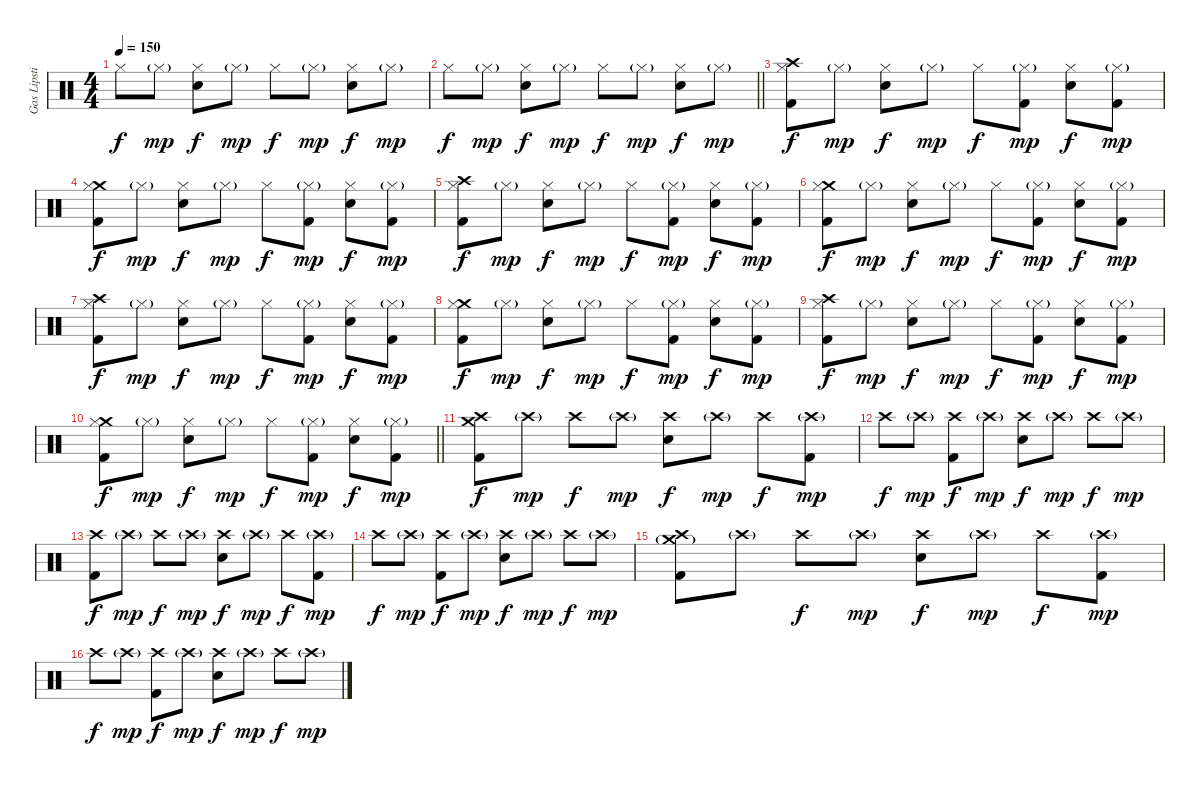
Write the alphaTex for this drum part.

\track ("Gas Lipstick" "Gas Lipsti") {instrument percussion}
\staff {score}
\articulation defaults
\ts (4 4)
\tempo 150
\clef neutral
\ks c "Hi-Hat (closed)".8{dy f} "Hi-Hat (closed)"{g}.8{dy mp}
("Hi-Hat (closed)" "Snare (hit) 2").8{dy f} "Hi-Hat (closed)"{g}.8{dy mp} "Hi-Hat (closed)".8{dy f} "Hi-Hat (closed)"{g}.8{dy mp} ("Hi-Hat (closed)" "Snare (hit) 2").8{dy f} "Hi-Hat (closed)"{g}.8{dy mp} |
\barLineRight lightlight "Hi-Hat (closed)".8{dy f} "Hi-Hat (closed)"{g}.8{dy mp}
("Hi-Hat (closed)" "Snare (hit) 2").8{dy f} "Hi-Hat (closed)"{g}.8{dy mp} "Hi-Hat (closed)".8{dy f} "Hi-Hat (closed)"{g}.8{dy mp} ("Hi-Hat (closed)" "Snare (hit) 2").8{dy f} "Hi-Hat (closed)"{g}.8{dy mp} |
("Crash high (hit)" "Hi-Hat (closed)" "Kick (hit) 2").8{dy f} "Hi-Hat (closed)"{g}.8{dy mp} ("Hi-Hat (closed)" "Snare (hit) 2").8{dy f} "Hi-Hat (closed)"{g}.8{dy mp} "Hi-Hat (closed)".8{dy f} ("Hi-Hat (closed)"{g} "Kick (hit) 2").8{dy mp} ("Hi-Hat (closed)" "Snare (hit) 2").8{dy f} ("Hi-Hat (closed)"{g} "Kick (hit) 2").8{dy mp} |
("Crash medium (hit)" "Hi-Hat (closed)" "Kick (hit) 2").8{dy f} "Hi-Hat (closed)"{g}.8{dy mp} ("Hi-Hat (closed)" "Snare (hit) 2").8{dy f} "Hi-Hat (closed)"{g}.8{dy mp} "Hi-Hat (closed)".8{dy f} ("Hi-Hat (closed)"{g} "Kick (hit) 2").8{dy mp} ("Hi-Hat (closed)" "Snare (hit) 2").8{dy f} ("Hi-Hat (closed)"{g} "Kick (hit) 2").8{dy mp} |
("Crash high (hit)" "Hi-Hat (closed)" "Kick (hit) 2").8{dy f} "Hi-Hat (closed)"{g}.8{dy mp} ("Hi-Hat (closed)" "Snare (hit) 2").8{dy f} "Hi-Hat (closed)"{g}.8{dy mp} "Hi-Hat (closed)".8{dy f} ("Hi-Hat (closed)"{g} "Kick (hit) 2").8{dy mp} ("Hi-Hat (closed)" "Snare (hit) 2").8{dy f} ("Hi-Hat (closed)"{g} "Kick (hit) 2").8{dy mp} |
("Crash medium (hit)" "Hi-Hat (closed)" "Kick (hit) 2").8{dy f} "Hi-Hat (closed)"{g}.8{dy mp} ("Hi-Hat (closed)" "Snare (hit) 2").8{dy f} "Hi-Hat (closed)"{g}.8{dy mp} "Hi-Hat (closed)".8{dy f} ("Hi-Hat (closed)"{g} "Kick (hit) 2").8{dy mp} ("Hi-Hat (closed)" "Snare (hit) 2").8{dy f} ("Hi-Hat (closed)"{g} "Kick (hit) 2").8{dy mp} |
("Crash high (hit)" "Hi-Hat (closed)" "Kick (hit) 2").8{dy f} "Hi-Hat (closed)"{g}.8{dy mp} ("Hi-Hat (closed)" "Snare (hit) 2").8{dy f} "Hi-Hat (closed)"{g}.8{dy mp} "Hi-Hat (closed)".8{dy f} ("Hi-Hat (closed)"{g} "Kick (hit) 2").8{dy mp} ("Hi-Hat (closed)" "Snare (hit) 2").8{dy f} ("Hi-Hat (closed)"{g} "Kick (hit) 2").8{dy mp} |
("Crash medium (hit)" "Hi-Hat (closed)" "Kick (hit) 2").8{dy f} "Hi-Hat (closed)"{g}.8{dy mp} ("Hi-Hat (closed)" "Snare (hit) 2").8{dy f} "Hi-Hat (closed)"{g}.8{dy mp} "Hi-Hat (closed)".8{dy f} ("Hi-Hat (closed)"{g} "Kick (hit) 2").8{dy mp} ("Hi-Hat (closed)" "Snare (hit) 2").8{dy f} ("Hi-Hat (closed)"{g} "Kick (hit) 2").8{dy mp} |
("Crash high (hit)" "Hi-Hat (closed)" "Kick (hit) 2").8{dy f} "Hi-Hat (closed)"{g}.8{dy mp} ("Hi-Hat (closed)" "Snare (hit) 2").8{dy f} "Hi-Hat (closed)"{g}.8{dy mp} "Hi-Hat (closed)".8{dy f} ("Hi-Hat (closed)"{g} "Kick (hit) 2").8{dy mp} ("Hi-Hat (closed)" "Snare (hit) 2").8{dy f} ("Hi-Hat (closed)"{g} "Kick (hit) 2").8{dy mp} |
\barLineRight lightlight
("Crash medium (hit)" "Hi-Hat (closed)" "Kick (hit) 2").8{dy f} "Hi-Hat (closed)"{g}.8{dy mp} ("Hi-Hat (closed)" "Snare (hit) 2").8{dy f} "Hi-Hat (closed)"{g}.8{dy mp} "Hi-Hat (closed)".8{dy f} ("Hi-Hat (closed)"{g} "Kick (hit) 2").8{dy mp} ("Hi-Hat (closed)" "Snare (hit) 2").8{dy f} ("Hi-Hat (closed)"{g} "Kick (hit) 2").8{dy mp} |
("Crash medium (hit)" "Crash high (hit)" "Kick (hit) 2").8{dy f} "Crash high (hit)"{g}.8{dy mp} "Crash high (hit)".8{dy f} "Crash high (hit)"{g}.8{dy mp} ("Crash high (hit)" "Snare (hit) 2").8{dy f} "Crash high (hit)"{g}.8{dy mp} "Crash high (hit)".8{dy f} ("Crash high (hit)"{g} "Kick (hit) 2").8{dy mp} |
"Crash high (hit)".8{dy f} "Crash high (hit)"{g}.8{dy mp} ("Crash high (hit)" "Kick (hit) 2").8{dy f} "Crash high (hit)"{g}.8{dy mp} ("Crash high (hit)" "Snare (hit) 2").8{dy f} "Crash high (hit)"{g}.8{dy mp} "Crash high (hit)".8{dy f} "Crash high (hit)"{g}.8{dy mp} |
("Crash high (hit)" "Kick (hit) 2").8{dy f} "Crash high (hit)"{g}.8{dy mp} "Crash high (hit)".8{dy f} "Crash high (hit)"{g}.8{dy mp} ("Crash high (hit)" "Snare (hit) 2").8{dy f} "Crash high (hit)"{g}.8{dy mp} "Crash high (hit)".8{dy f} ("Crash high (hit)"{g} "Kick (hit) 2").8{dy mp} |
"Crash high (hit)".8{dy f} "Crash high (hit)"{g}.8{dy mp} ("Crash high (hit)" "Kick (hit) 2").8{dy f} "Crash high (hit)"{g}.8{dy mp} ("Crash high (hit)" "Snare (hit) 2").8{dy f} "Crash high (hit)"{g}.8{dy mp} "Crash high (hit)".8{dy f} "Crash high (hit)"{g}.8{dy mp} |
("Crash medium (hit)"{g} "Crash high (hit)" "Kick (hit) 2").8 "Crash high (hit)"{g}.8 "Crash high (hit)".8{dy f} "Crash high (hit)"{g}.8{dy mp} ("Crash high (hit)" "Snare (hit) 2").8{dy f} "Crash high (hit)"{g}.8{dy mp} "Crash high (hit)".8{dy f} ("Crash high (hit)"{g} "Kick (hit) 2").8{dy mp} |
"Crash high (hit)".8{dy f} "Crash high (hit)"{g}.8{dy mp} ("Crash high (hit)" "Kick (hit) 2").8{dy f} "Crash high (hit)"{g}.8{dy mp} ("Crash high (hit)" "Snare (hit) 2").8{dy f} "Crash high (hit)"{g}.8{dy mp} "Crash high (hit)".8{dy f} "Crash high (hit)"{g}.8{dy mp}
